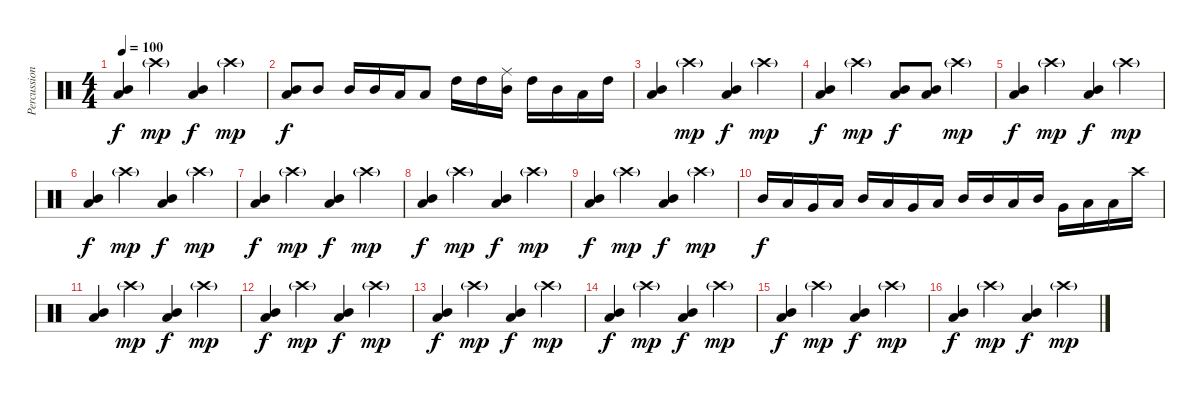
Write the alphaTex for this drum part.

\track ("Percussion" "Percussion") {instrument percussion}
\staff {score}
\articulation defaults
\ts (4 4)
\tempo 100
\clef neutral
\ks c
("Mid Tom (hit)" "Low Tom (hit)").4{dy f} "Crash high (hit)"{g}.4{dy mp} ("Mid Tom (hit)" "Low Tom (hit)").4{dy f} "Crash high (hit)"{g}.4{dy mp} |
("Mid Tom (hit)" "Low Tom (hit)").8{dy f} "Mid Tom (hit)".8 "Mid Tom (hit)".16 "Mid Tom (hit)".16 "Low Tom (hit)".16 "Low Tom (hit)".8 "High Tom (hit)".16 "High Tom (hit)".16 ("Mid Tom (hit)" "Ride (middle)").16 "High Tom (hit)".16 "Mid Tom (hit)".16 "Low Tom (hit)".16 "High Tom (hit)".16 |
("Mid Tom (hit)" "Low Tom (hit)").4 "Crash high (hit)"{g}.4{dy mp} ("Mid Tom (hit)" "Low Tom (hit)").4{dy f} "Crash high (hit)"{g}.4{dy mp} |
("Mid Tom (hit)" "Low Tom (hit)").4{dy f} "Crash high (hit)"{g}.4{dy mp} ("Mid Tom (hit)" "Low Tom (hit)").8{dy f} ("Mid Tom (hit)" "Low Tom (hit)").8 "Crash high (hit)"{g}.4{dy mp} |
("Mid Tom (hit)" "Low Tom (hit)").4{dy f} "Crash high (hit)"{g}.4{dy mp} ("Mid Tom (hit)" "Low Tom (hit)").4{dy f} "Crash high (hit)"{g}.4{dy mp} |
("Mid Tom (hit)" "Low Tom (hit)").4{dy f} "Crash high (hit)"{g}.4{dy mp} ("Mid Tom (hit)" "Low Tom (hit)").4{dy f} "Crash high (hit)"{g}.4{dy mp} |
("Mid Tom (hit)" "Low Tom (hit)").4{dy f} "Crash high (hit)"{g}.4{dy mp} ("Mid Tom (hit)" "Low Tom (hit)").4{dy f} "Crash high (hit)"{g}.4{dy mp} |
("Mid Tom (hit)" "Low Tom (hit)").4{dy f} "Crash high (hit)"{g}.4{dy mp} ("Mid Tom (hit)" "Low Tom (hit)").4{dy f} "Crash high (hit)"{g}.4{dy mp} |
("Mid Tom (hit)" "Low Tom (hit)").4{dy f} "Crash high (hit)"{g}.4{dy mp} ("Mid Tom (hit)" "Low Tom (hit)").4{dy f} "Crash high (hit)"{g}.4{dy mp} |
"Mid Tom (hit)".16{dy f} "Low Tom (hit)".16 "Very Low Tom (hit)".16 "Low Floor Tom (hit)".16 "Mid Tom (hit)".16 "Low Tom (hit)".16 "Very Low Tom (hit)".16 "Low Floor Tom (hit)".16 "Mid Tom (hit)".16 "Mid Tom (hit)".16 "Low Tom (hit)".16 "Mid Tom (hit)".16 "Very Low Tom (hit)".16 "Low Tom (hit)".16 "Low Tom (hit)".16 "Crash high (hit)".16 |
("Mid Tom (hit)" "Low Tom (hit)").4 "Crash high (hit)"{g}.4{dy mp} ("Mid Tom (hit)" "Low Tom (hit)").4{dy f} "Crash high (hit)"{g}.4{dy mp} |
("Mid Tom (hit)" "Low Tom (hit)").4{dy f} "Crash high (hit)"{g}.4{dy mp} ("Mid Tom (hit)" "Low Tom (hit)").4{dy f} "Crash high (hit)"{g}.4{dy mp} |
("Mid Tom (hit)" "Low Tom (hit)").4{dy f} "Crash high (hit)"{g}.4{dy mp} ("Mid Tom (hit)" "Low Tom (hit)").4{dy f} "Crash high (hit)"{g}.4{dy mp} |
("Mid Tom (hit)" "Low Tom (hit)").4{dy f} "Crash high (hit)"{g}.4{dy mp} ("Mid Tom (hit)" "Low Tom (hit)").4{dy f} "Crash high (hit)"{g}.4{dy mp} |
("Mid Tom (hit)" "Low Tom (hit)").4{dy f} "Crash high (hit)"{g}.4{dy mp} ("Mid Tom (hit)" "Low Tom (hit)").4{dy f} "Crash high (hit)"{g}.4{dy mp} |
("Mid Tom (hit)" "Low Tom (hit)").4{dy f} "Crash high (hit)"{g}.4{dy mp} ("Mid Tom (hit)" "Low Tom (hit)").4{dy f} "Crash high (hit)"{g}.4{dy mp}
